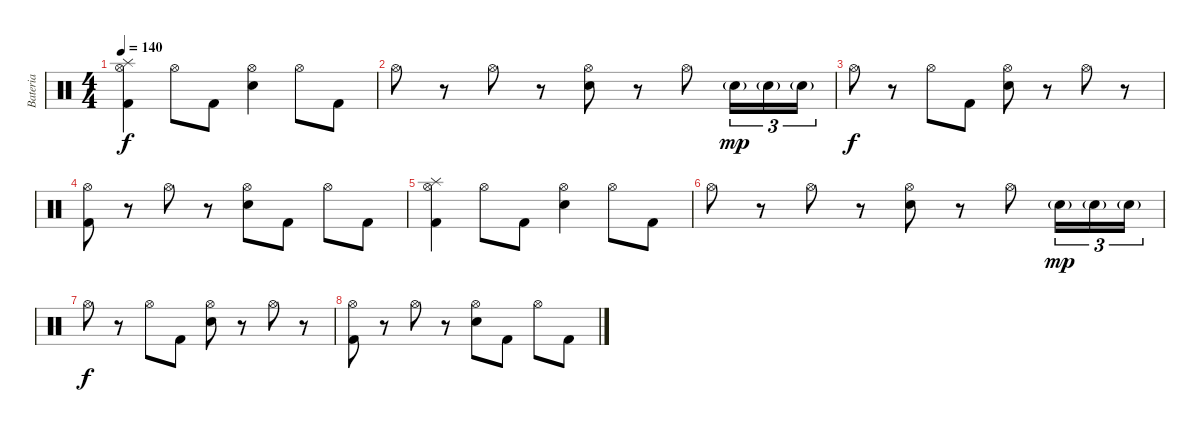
\track ("Bateria" "Bateria") {instrument percussion}
\staff {score}
\articulation defaults
\ts (4 4)
\tempo 140
\clef neutral
\ks c
("Hi-Hat (open)" "Splash (hit)" "Kick (hit) 2").4{dy f} "Hi-Hat (open)".8 "Kick (hit) 2".8 ("Hi-Hat (open)" "Electric Snare (hit)").4 "Hi-Hat (open)".8 "Kick (hit) 2".8 |
"Hi-Hat (open)".8 r.8 "Hi-Hat (open)".8 r.8 ("Hi-Hat (open)" "Electric Snare (hit)").8 r.8 "Hi-Hat (open)".8 "Electric Snare (hit)"{g}.16{tu (3 2) dy mp} "Electric Snare (hit)"{g}.16{tu (3 2)} "Electric Snare (hit)"{g}.16{tu (3 2)} |
"Hi-Hat (open)".8{dy f} r.8 "Hi-Hat (open)".8 "Kick (hit) 2".8 ("Hi-Hat (open)" "Electric Snare (hit)").8 r.8 "Hi-Hat (open)".8 r.8 |
("Hi-Hat (open)" "Kick (hit) 2").8 r.8 "Hi-Hat (open)".8 r.8 ("Hi-Hat (open)" "Electric Snare (hit)").8 "Kick (hit) 2".8 "Hi-Hat (open)".8 "Kick (hit) 2".8 |
("Hi-Hat (open)" "Splash (hit)" "Kick (hit) 2").4 "Hi-Hat (open)".8 "Kick (hit) 2".8 ("Hi-Hat (open)" "Electric Snare (hit)").4 "Hi-Hat (open)".8 "Kick (hit) 2".8 |
"Hi-Hat (open)".8 r.8 "Hi-Hat (open)".8 r.8 ("Hi-Hat (open)" "Electric Snare (hit)").8 r.8 "Hi-Hat (open)".8 "Electric Snare (hit)"{g}.16{tu (3 2) dy mp} "Electric Snare (hit)"{g}.16{tu (3 2)} "Electric Snare (hit)"{g}.16{tu (3 2)} |
"Hi-Hat (open)".8{dy f} r.8 "Hi-Hat (open)".8 "Kick (hit) 2".8 ("Hi-Hat (open)" "Electric Snare (hit)").8 r.8 "Hi-Hat (open)".8 r.8 |
("Hi-Hat (open)" "Kick (hit) 2").8 r.8 "Hi-Hat (open)".8 r.8 ("Hi-Hat (open)" "Electric Snare (hit)").8 "Kick (hit) 2".8 "Hi-Hat (open)".8 "Kick (hit) 2".8
